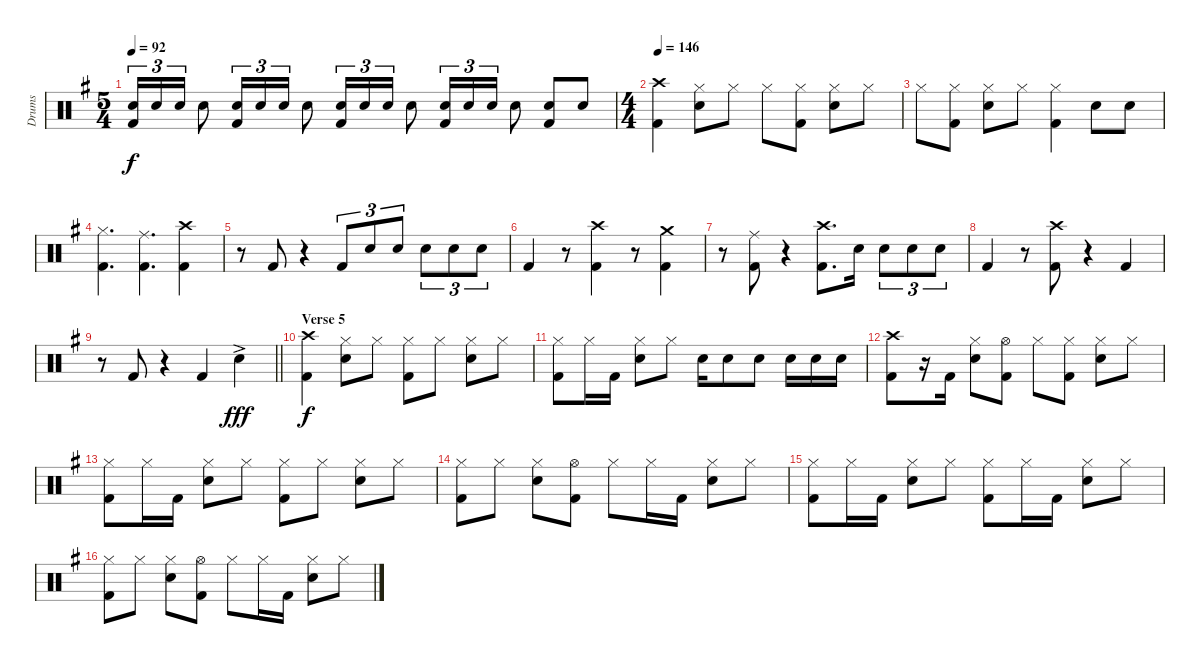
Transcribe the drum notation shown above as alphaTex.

\track ("Drums" "Drums") {instrument percussion}
\staff {score}
\articulation defaults
\ts (5 4)
\tempo 92
\clef neutral
\ks g
("Kick (hit) 2" "Snare (hit) 2").16{tu (3 2) dy f} "Snare (hit) 2".16{tu (3 2)} "Snare (hit) 2".16{tu (3 2)} "Snare (hit) 2".8 ("Kick (hit) 2" "Snare (hit) 2").16{tu (3 2)} "Snare (hit) 2".16{tu (3 2)} "Snare (hit) 2".16{tu (3 2)} "Snare (hit) 2".8 ("Kick (hit) 2" "Snare (hit) 2").16{tu (3 2)} "Snare (hit) 2".16{tu (3 2)} "Snare (hit) 2".16{tu (3 2)} "Snare (hit) 2".8 ("Kick (hit) 2" "Snare (hit) 2").16{tu (3 2)} "Snare (hit) 2".16{tu (3 2)} "Snare (hit) 2".16{tu (3 2)} "Snare (hit) 2".8 ("Kick (hit) 2" "Snare (hit) 2").8 "Snare (hit) 2".8 |
\ts (4 4)
\tempo 146
("Kick (hit) 2" "Crash high (hit)").4 ("Snare (hit) 2" "Hi-Hat (closed)").8 "Hi-Hat (closed)".8 "Hi-Hat (closed)".8 ("Kick (hit) 2" "Hi-Hat (closed)").8 ("Snare (hit) 2" "Hi-Hat (closed)").8 "Hi-Hat (closed)".8 |
"Hi-Hat (closed)".8 ("Kick (hit) 2" "Hi-Hat (closed)").8 ("Snare (hit) 2" "Hi-Hat (closed)").8 "Hi-Hat (closed)".8 ("Kick (hit) 2" "Hi-Hat (closed)").4 "Snare (hit) 2".8 "Snare (hit) 2".8 |
("Kick (hit) 2" "Hi-Hat (closed)").4{d} ("Kick (hit) 2" "Ride (middle)").4{d} ("Kick (hit) 2" "Crash high (hit)").4 |
r.8 "Kick (hit) 2".8 r.4 "Kick (hit) 2".8{tu (3 2)} "Snare (hit) 2".8{tu (3 2)} "Snare (hit) 2".8{tu (3 2)} "Snare (hit) 2".8{tu (3 2)} "Snare (hit) 2".8{tu (3 2)} "Snare (hit) 2".8{tu (3 2)} |
"Kick (hit) 2".4 r.8 ("Kick (hit) 2" "Crash high (hit)").4 r.8 ("Kick (hit) 2" "Crash medium (hit)").4 |
r.8 ("Kick (hit) 2" "Ride (middle)").8 r.4 ("Kick (hit) 2" "Crash high (hit)").8{d} "Snare (hit) 2".16 "Snare (hit) 2".8{tu (3 2)} "Snare (hit) 2".8{tu (3 2)} "Snare (hit) 2".8{tu (3 2)} |
"Kick (hit) 2".4 r.8 ("Kick (hit) 2" "Crash high (hit)").8 r.4 "Kick (hit) 2".4 |
\barLineRight lightlight
r.8 "Kick (hit) 2".8 r.4 "Kick (hit) 2".4 "Snare (hit) 2"{ac}.4{dy fff} |
\section ("" "Verse 5")
("Kick (hit) 2" "Crash high (hit)").4{dy f} ("Snare (hit) 2" "Hi-Hat (closed)").8 "Hi-Hat (closed)".8 ("Kick (hit) 2" "Hi-Hat (closed)").8 "Hi-Hat (closed)".8 ("Snare (hit) 2" "Hi-Hat (closed)").8 "Hi-Hat (closed)".8 |
("Kick (hit) 2" "Hi-Hat (closed)").8 "Hi-Hat (closed)".16 "Kick (hit) 2".16 ("Snare (hit) 2" "Hi-Hat (closed)").8 "Hi-Hat (closed)".8 "Snare (hit) 2".16 "Snare (hit) 2".8 "Snare (hit) 2".8 "Snare (hit) 2".16 "Snare (hit) 2".16 "Snare (hit) 2".16 |
("Kick (hit) 2" "Crash high (hit)").8 r.16 "Kick (hit) 2".16 ("Snare (hit) 2" "Hi-Hat (closed)").8 ("Kick (hit) 2" "Hi-Hat (open)").8 "Hi-Hat (closed)".8 ("Kick (hit) 2" "Hi-Hat (closed)").8 ("Snare (hit) 2" "Hi-Hat (closed)").8 "Hi-Hat (closed)".8 |
("Kick (hit) 2" "Hi-Hat (closed)").8 "Hi-Hat (closed)".16 "Kick (hit) 2".16 ("Snare (hit) 2" "Hi-Hat (closed)").8 "Hi-Hat (closed)".8 ("Kick (hit) 2" "Hi-Hat (closed)").8 "Hi-Hat (closed)".8 ("Snare (hit) 2" "Hi-Hat (closed)").8 "Hi-Hat (closed)".8 |
("Kick (hit) 2" "Hi-Hat (closed)").8 "Hi-Hat (closed)".8 ("Snare (hit) 2" "Hi-Hat (closed)").8 ("Kick (hit) 2" "Hi-Hat (open)").8 "Hi-Hat (closed)".8 "Hi-Hat (closed)".16 "Kick (hit) 2".16 ("Snare (hit) 2" "Hi-Hat (closed)").8 "Hi-Hat (closed)".8 |
("Kick (hit) 2" "Hi-Hat (closed)").8 "Hi-Hat (closed)".16 "Kick (hit) 2".16 ("Snare (hit) 2" "Hi-Hat (closed)").8 "Hi-Hat (closed)".8 ("Kick (hit) 2" "Hi-Hat (closed)").8 "Hi-Hat (closed)".16 "Kick (hit) 2".16 ("Snare (hit) 2" "Hi-Hat (closed)").8 "Hi-Hat (closed)".8 |
("Kick (hit) 2" "Hi-Hat (closed)").8 "Hi-Hat (closed)".8 ("Snare (hit) 2" "Hi-Hat (closed)").8 ("Kick (hit) 2" "Hi-Hat (open)").8 "Hi-Hat (closed)".8 "Hi-Hat (closed)".16 "Kick (hit) 2".16 ("Snare (hit) 2" "Hi-Hat (closed)").8 "Hi-Hat (closed)".8
